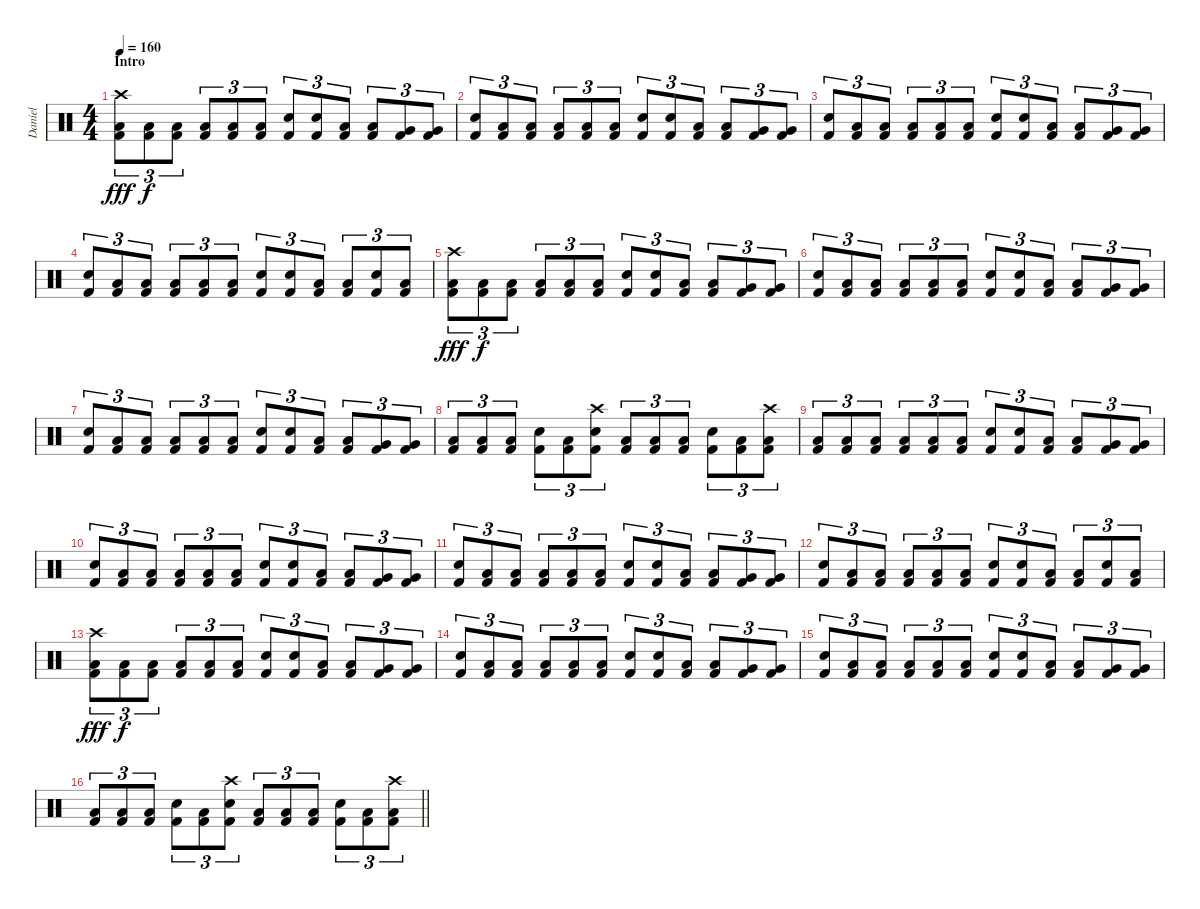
\track ("Daniel" "Daniel") {instrument percussion}
\staff {score}
\articulation defaults
\ts (4 4)
\section ("" "Intro")
\tempo 160
\clef neutral
\ks c
("Crash high (hit)" "Low Floor Tom (hit)" "Kick (hit) 2").8{tu (3 2) dy fff} ("Low Floor Tom (hit)" "Kick (hit) 2").8{tu (3 2) dy f} ("Low Floor Tom (hit)" "Kick (hit) 2").8{tu (3 2)} ("Low Floor Tom (hit)" "Kick (hit) 2").8{tu (3 2)} ("Low Floor Tom (hit)" "Kick (hit) 2").8{tu (3 2)} ("Low Floor Tom (hit)" "Kick (hit) 2").8{tu (3 2)} ("Electric Snare (hit)" "Kick (hit) 2").8{tu (3 2)} ("Electric Snare (hit)" "Kick (hit) 2").8{tu (3 2)} ("Low Tom (hit)" "Kick (hit) 2").8{tu (3 2)} ("Low Tom (hit)" "Kick (hit) 2").8{tu (3 2)} ("Very Low Tom (hit)" "Kick (hit) 2").8{tu (3 2)} ("Very Low Tom (hit)" "Kick (hit) 2").8{tu (3 2)} |
("Electric Snare (hit)" "Kick (hit) 2").8{tu (3 2)} ("Low Floor Tom (hit)" "Kick (hit) 2").8{tu (3 2)} ("Low Floor Tom (hit)" "Kick (hit) 2").8{tu (3 2)} ("Low Floor Tom (hit)" "Kick (hit) 2").8{tu (3 2)} ("Low Floor Tom (hit)" "Kick (hit) 2").8{tu (3 2)} ("Low Floor Tom (hit)" "Kick (hit) 2").8{tu (3 2)} ("Electric Snare (hit)" "Kick (hit) 2").8{tu (3 2)} ("Electric Snare (hit)" "Kick (hit) 2").8{tu (3 2)} ("Low Tom (hit)" "Kick (hit) 2").8{tu (3 2)} ("Low Tom (hit)" "Kick (hit) 2").8{tu (3 2)} ("Very Low Tom (hit)" "Kick (hit) 2").8{tu (3 2)} ("Very Low Tom (hit)" "Kick (hit) 2").8{tu (3 2)} |
("Electric Snare (hit)" "Kick (hit) 2").8{tu (3 2)} ("Low Floor Tom (hit)" "Kick (hit) 2").8{tu (3 2)} ("Low Floor Tom (hit)" "Kick (hit) 2").8{tu (3 2)} ("Low Floor Tom (hit)" "Kick (hit) 2").8{tu (3 2)} ("Low Floor Tom (hit)" "Kick (hit) 2").8{tu (3 2)} ("Low Floor Tom (hit)" "Kick (hit) 2").8{tu (3 2)} ("Electric Snare (hit)" "Kick (hit) 2").8{tu (3 2)} ("Electric Snare (hit)" "Kick (hit) 2").8{tu (3 2)} ("Low Tom (hit)" "Kick (hit) 2").8{tu (3 2)} ("Low Tom (hit)" "Kick (hit) 2").8{tu (3 2)} ("Very Low Tom (hit)" "Kick (hit) 2").8{tu (3 2)} ("Very Low Tom (hit)" "Kick (hit) 2").8{tu (3 2)} |
("Electric Snare (hit)" "Kick (hit) 2").8{tu (3 2)} ("Low Floor Tom (hit)" "Kick (hit) 2").8{tu (3 2)} ("Low Floor Tom (hit)" "Kick (hit) 2").8{tu (3 2)} ("Low Floor Tom (hit)" "Kick (hit) 2").8{tu (3 2)} ("Low Floor Tom (hit)" "Kick (hit) 2").8{tu (3 2)} ("Low Floor Tom (hit)" "Kick (hit) 2").8{tu (3 2)} ("Electric Snare (hit)" "Kick (hit) 2").8{tu (3 2)} ("Electric Snare (hit)" "Kick (hit) 2").8{tu (3 2)} ("Low Floor Tom (hit)" "Kick (hit) 2").8{tu (3 2)} ("Low Floor Tom (hit)" "Kick (hit) 2").8{tu (3 2)} ("Electric Snare (hit)" "Kick (hit) 2").8{tu (3 2)} ("Low Floor Tom (hit)" "Kick (hit) 2").8{tu (3 2)} |
("Crash high (hit)" "Low Floor Tom (hit)" "Kick (hit) 2").8{tu (3 2) dy fff} ("Low Floor Tom (hit)" "Kick (hit) 2").8{tu (3 2) dy f} ("Low Floor Tom (hit)" "Kick (hit) 2").8{tu (3 2)} ("Low Floor Tom (hit)" "Kick (hit) 2").8{tu (3 2)} ("Low Floor Tom (hit)" "Kick (hit) 2").8{tu (3 2)} ("Low Floor Tom (hit)" "Kick (hit) 2").8{tu (3 2)} ("Electric Snare (hit)" "Kick (hit) 2").8{tu (3 2)} ("Electric Snare (hit)" "Kick (hit) 2").8{tu (3 2)} ("Low Tom (hit)" "Kick (hit) 2").8{tu (3 2)} ("Low Tom (hit)" "Kick (hit) 2").8{tu (3 2)} ("Very Low Tom (hit)" "Kick (hit) 2").8{tu (3 2)} ("Very Low Tom (hit)" "Kick (hit) 2").8{tu (3 2)} |
("Electric Snare (hit)" "Kick (hit) 2").8{tu (3 2)} ("Low Floor Tom (hit)" "Kick (hit) 2").8{tu (3 2)} ("Low Floor Tom (hit)" "Kick (hit) 2").8{tu (3 2)} ("Low Floor Tom (hit)" "Kick (hit) 2").8{tu (3 2)} ("Low Floor Tom (hit)" "Kick (hit) 2").8{tu (3 2)} ("Low Floor Tom (hit)" "Kick (hit) 2").8{tu (3 2)} ("Electric Snare (hit)" "Kick (hit) 2").8{tu (3 2)} ("Electric Snare (hit)" "Kick (hit) 2").8{tu (3 2)} ("Low Tom (hit)" "Kick (hit) 2").8{tu (3 2)} ("Low Tom (hit)" "Kick (hit) 2").8{tu (3 2)} ("Very Low Tom (hit)" "Kick (hit) 2").8{tu (3 2)} ("Very Low Tom (hit)" "Kick (hit) 2").8{tu (3 2)} |
("Electric Snare (hit)" "Kick (hit) 2").8{tu (3 2)} ("Low Floor Tom (hit)" "Kick (hit) 2").8{tu (3 2)} ("Low Floor Tom (hit)" "Kick (hit) 2").8{tu (3 2)} ("Low Floor Tom (hit)" "Kick (hit) 2").8{tu (3 2)} ("Low Floor Tom (hit)" "Kick (hit) 2").8{tu (3 2)} ("Low Floor Tom (hit)" "Kick (hit) 2").8{tu (3 2)} ("Electric Snare (hit)" "Kick (hit) 2").8{tu (3 2)} ("Electric Snare (hit)" "Kick (hit) 2").8{tu (3 2)} ("Low Tom (hit)" "Kick (hit) 2").8{tu (3 2)} ("Low Tom (hit)" "Kick (hit) 2").8{tu (3 2)} ("Very Low Tom (hit)" "Kick (hit) 2").8{tu (3 2)} ("Very Low Tom (hit)" "Kick (hit) 2").8{tu (3 2)} |
("Low Floor Tom (hit)" "Kick (hit) 2").8{tu (3 2)} ("Low Floor Tom (hit)" "Kick (hit) 2").8{tu (3 2)} ("Low Floor Tom (hit)" "Kick (hit) 2").8{tu (3 2)} ("Electric Snare (hit)" "Kick (hit) 2").8{tu (3 2)} ("Low Floor Tom (hit)" "Kick (hit) 2").8{tu (3 2)} ("Crash high (hit)" "Electric Snare (hit)" "Kick (hit) 2").8{tu (3 2)} ("Low Floor Tom (hit)" "Kick (hit) 2").8{tu (3 2)} ("Low Floor Tom (hit)" "Kick (hit) 2").8{tu (3 2)} ("Low Floor Tom (hit)" "Kick (hit) 2").8{tu (3 2)} ("Electric Snare (hit)" "Kick (hit) 2").8{tu (3 2)} ("Low Floor Tom (hit)" "Kick (hit) 2").8{tu (3 2)} ("Crash high (hit)" "Low Floor Tom (hit)" "Kick (hit) 2").8{tu (3 2)} |
("Low Floor Tom (hit)" "Kick (hit) 2").8{tu (3 2)} ("Low Floor Tom (hit)" "Kick (hit) 2").8{tu (3 2)} ("Low Floor Tom (hit)" "Kick (hit) 2").8{tu (3 2)} ("Low Floor Tom (hit)" "Kick (hit) 2").8{tu (3 2)} ("Low Floor Tom (hit)" "Kick (hit) 2").8{tu (3 2)} ("Low Floor Tom (hit)" "Kick (hit) 2").8{tu (3 2)} ("Electric Snare (hit)" "Kick (hit) 2").8{tu (3 2)} ("Electric Snare (hit)" "Kick (hit) 2").8{tu (3 2)} ("Low Tom (hit)" "Kick (hit) 2").8{tu (3 2)} ("Low Tom (hit)" "Kick (hit) 2").8{tu (3 2)} ("Very Low Tom (hit)" "Kick (hit) 2").8{tu (3 2)} ("Very Low Tom (hit)" "Kick (hit) 2").8{tu (3 2)} |
("Electric Snare (hit)" "Kick (hit) 2").8{tu (3 2)} ("Low Floor Tom (hit)" "Kick (hit) 2").8{tu (3 2)} ("Low Floor Tom (hit)" "Kick (hit) 2").8{tu (3 2)} ("Low Floor Tom (hit)" "Kick (hit) 2").8{tu (3 2)} ("Low Floor Tom (hit)" "Kick (hit) 2").8{tu (3 2)} ("Low Floor Tom (hit)" "Kick (hit) 2").8{tu (3 2)} ("Electric Snare (hit)" "Kick (hit) 2").8{tu (3 2)} ("Electric Snare (hit)" "Kick (hit) 2").8{tu (3 2)} ("Low Tom (hit)" "Kick (hit) 2").8{tu (3 2)} ("Low Tom (hit)" "Kick (hit) 2").8{tu (3 2)} ("Very Low Tom (hit)" "Kick (hit) 2").8{tu (3 2)} ("Very Low Tom (hit)" "Kick (hit) 2").8{tu (3 2)} |
("Electric Snare (hit)" "Kick (hit) 2").8{tu (3 2)} ("Low Floor Tom (hit)" "Kick (hit) 2").8{tu (3 2)} ("Low Floor Tom (hit)" "Kick (hit) 2").8{tu (3 2)} ("Low Floor Tom (hit)" "Kick (hit) 2").8{tu (3 2)} ("Low Floor Tom (hit)" "Kick (hit) 2").8{tu (3 2)} ("Low Floor Tom (hit)" "Kick (hit) 2").8{tu (3 2)} ("Electric Snare (hit)" "Kick (hit) 2").8{tu (3 2)} ("Electric Snare (hit)" "Kick (hit) 2").8{tu (3 2)} ("Low Tom (hit)" "Kick (hit) 2").8{tu (3 2)} ("Low Tom (hit)" "Kick (hit) 2").8{tu (3 2)} ("Very Low Tom (hit)" "Kick (hit) 2").8{tu (3 2)} ("Very Low Tom (hit)" "Kick (hit) 2").8{tu (3 2)} |
("Electric Snare (hit)" "Kick (hit) 2").8{tu (3 2)} ("Low Floor Tom (hit)" "Kick (hit) 2").8{tu (3 2)} ("Low Floor Tom (hit)" "Kick (hit) 2").8{tu (3 2)} ("Low Floor Tom (hit)" "Kick (hit) 2").8{tu (3 2)} ("Low Floor Tom (hit)" "Kick (hit) 2").8{tu (3 2)} ("Low Floor Tom (hit)" "Kick (hit) 2").8{tu (3 2)} ("Electric Snare (hit)" "Kick (hit) 2").8{tu (3 2)} ("Electric Snare (hit)" "Kick (hit) 2").8{tu (3 2)} ("Low Floor Tom (hit)" "Kick (hit) 2").8{tu (3 2)} ("Low Floor Tom (hit)" "Kick (hit) 2").8{tu (3 2)} ("Electric Snare (hit)" "Kick (hit) 2").8{tu (3 2)} ("Low Floor Tom (hit)" "Kick (hit) 2").8{tu (3 2)} |
("Crash high (hit)" "Low Floor Tom (hit)" "Kick (hit) 2").8{tu (3 2) dy fff} ("Low Floor Tom (hit)" "Kick (hit) 2").8{tu (3 2) dy f} ("Low Floor Tom (hit)" "Kick (hit) 2").8{tu (3 2)} ("Low Floor Tom (hit)" "Kick (hit) 2").8{tu (3 2)} ("Low Floor Tom (hit)" "Kick (hit) 2").8{tu (3 2)} ("Low Floor Tom (hit)" "Kick (hit) 2").8{tu (3 2)} ("Electric Snare (hit)" "Kick (hit) 2").8{tu (3 2)} ("Electric Snare (hit)" "Kick (hit) 2").8{tu (3 2)} ("Low Tom (hit)" "Kick (hit) 2").8{tu (3 2)} ("Low Tom (hit)" "Kick (hit) 2").8{tu (3 2)} ("Very Low Tom (hit)" "Kick (hit) 2").8{tu (3 2)} ("Very Low Tom (hit)" "Kick (hit) 2").8{tu (3 2)} |
("Electric Snare (hit)" "Kick (hit) 2").8{tu (3 2)} ("Low Floor Tom (hit)" "Kick (hit) 2").8{tu (3 2)} ("Low Floor Tom (hit)" "Kick (hit) 2").8{tu (3 2)} ("Low Floor Tom (hit)" "Kick (hit) 2").8{tu (3 2)} ("Low Floor Tom (hit)" "Kick (hit) 2").8{tu (3 2)} ("Low Floor Tom (hit)" "Kick (hit) 2").8{tu (3 2)} ("Electric Snare (hit)" "Kick (hit) 2").8{tu (3 2)} ("Electric Snare (hit)" "Kick (hit) 2").8{tu (3 2)} ("Low Tom (hit)" "Kick (hit) 2").8{tu (3 2)} ("Low Tom (hit)" "Kick (hit) 2").8{tu (3 2)} ("Very Low Tom (hit)" "Kick (hit) 2").8{tu (3 2)} ("Very Low Tom (hit)" "Kick (hit) 2").8{tu (3 2)} |
("Electric Snare (hit)" "Kick (hit) 2").8{tu (3 2)} ("Low Floor Tom (hit)" "Kick (hit) 2").8{tu (3 2)} ("Low Floor Tom (hit)" "Kick (hit) 2").8{tu (3 2)} ("Low Floor Tom (hit)" "Kick (hit) 2").8{tu (3 2)} ("Low Floor Tom (hit)" "Kick (hit) 2").8{tu (3 2)} ("Low Floor Tom (hit)" "Kick (hit) 2").8{tu (3 2)} ("Electric Snare (hit)" "Kick (hit) 2").8{tu (3 2)} ("Electric Snare (hit)" "Kick (hit) 2").8{tu (3 2)} ("Low Tom (hit)" "Kick (hit) 2").8{tu (3 2)} ("Low Tom (hit)" "Kick (hit) 2").8{tu (3 2)} ("Very Low Tom (hit)" "Kick (hit) 2").8{tu (3 2)} ("Very Low Tom (hit)" "Kick (hit) 2").8{tu (3 2)} |
\barLineRight lightlight
("Low Floor Tom (hit)" "Kick (hit) 2").8{tu (3 2)} ("Low Floor Tom (hit)" "Kick (hit) 2").8{tu (3 2)} ("Low Floor Tom (hit)" "Kick (hit) 2").8{tu (3 2)} ("Electric Snare (hit)" "Kick (hit) 2").8{tu (3 2)} ("Low Floor Tom (hit)" "Kick (hit) 2").8{tu (3 2)} ("Crash high (hit)" "Electric Snare (hit)" "Kick (hit) 2").8{tu (3 2)} ("Low Floor Tom (hit)" "Kick (hit) 2").8{tu (3 2)} ("Low Floor Tom (hit)" "Kick (hit) 2").8{tu (3 2)} ("Low Floor Tom (hit)" "Kick (hit) 2").8{tu (3 2)} ("Electric Snare (hit)" "Kick (hit) 2").8{tu (3 2)} ("Low Floor Tom (hit)" "Kick (hit) 2").8{tu (3 2)} ("Crash high (hit)" "Low Floor Tom (hit)" "Kick (hit) 2").8{tu (3 2)}
